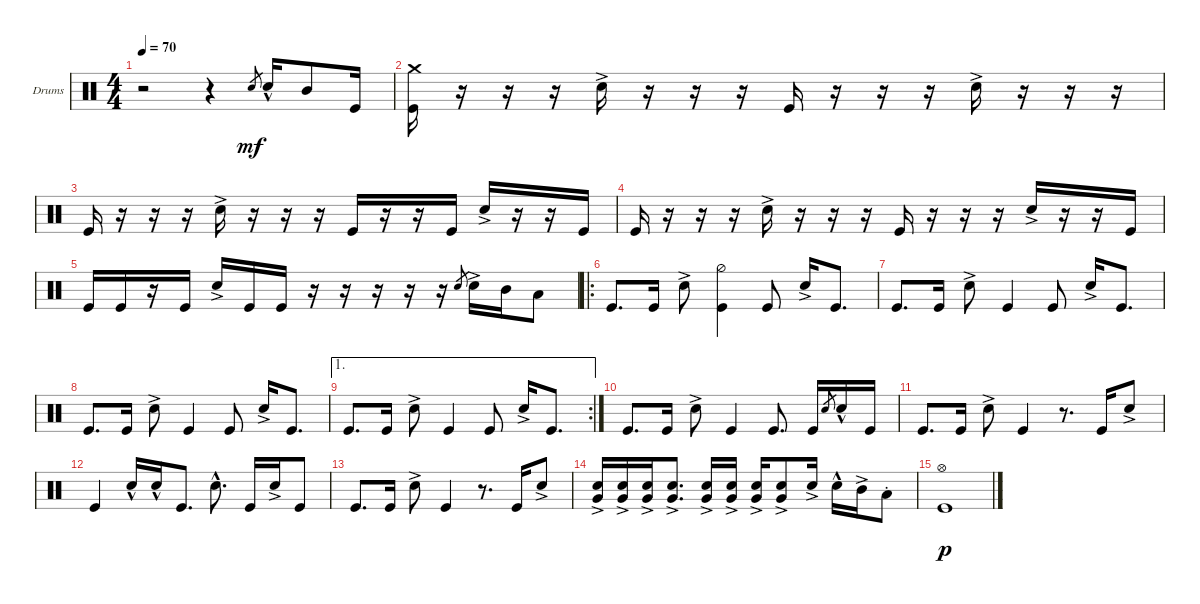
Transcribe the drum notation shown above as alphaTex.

\defaultSystemsLayout 4
\bracketExtendMode groupsimilarinstruments
\firstSystemTrackNameOrientation horizontal
\otherSystemsTrackNameOrientation horizontal
\track ("Drumkit" "Drums") {instrument percussion}
\staff {score}
\articulation defaults
\ts (4 4)
\tempo 70
\clef neutral
\ks c
r.2{dy mf} r.4 "Snare (hit) 2".8{gr} "Snare (hit) 2"{hac}.16 "Mid Tom (hit)".8 "Kick (hit)".16 |
("Kick (hit)" "Crash medium (hit)").16 r.16 r.16 r.16 "Snare (hit) 2"{ac}.16 r.16 r.16 r.16 "Kick (hit)".16 r.16 r.16 r.16 "Snare (hit) 2"{ac}.16 r.16 r.16 r.16 |
"Kick (hit)".16 r.16 r.16 r.16 "Snare (hit) 2"{ac}.16 r.16 r.16 r.16 "Kick (hit)".16 r.16 r.16 "Kick (hit)".16 "Snare (hit) 2"{ac}.16 r.16 r.16 "Kick (hit)".16 |
"Kick (hit)".16 r.16 r.16 r.16 "Snare (hit) 2"{ac}.16 r.16 r.16 r.16 "Kick (hit)".16 r.16 r.16 r.16 "Snare (hit) 2"{ac}.16 r.16 r.16 "Kick (hit)".16 |
"Kick (hit)".16 "Kick (hit)".16 r.16 "Kick (hit)".16 "Snare (hit) 2"{ac}.16 "Kick (hit)".16 "Kick (hit)".16 r.16 r.16 r.16 r.16 r.16 "Snare (hit) 2".8{gr} "Snare (hit) 2"{ac}.16 "Mid Tom (hit)".16 "Low Tom (hit)".8 |
\ro "Kick (hit)".8{d} "Kick (hit)".16 "Snare (hit) 2"{ac}.8
("Kick (hit)" "Hi-Hat (half)").4 "Kick (hit)".8 "Snare (hit) 2"{ac}.16 "Kick (hit)".8{d} |
"Kick (hit)".8{d} "Kick (hit)".16 "Snare (hit) 2"{ac}.8 "Kick (hit)".4 "Kick (hit)".8 "Snare (hit) 2"{ac}.16 "Kick (hit)".8{d} |
"Kick (hit)".8{d} "Kick (hit)".16 "Snare (hit) 2"{ac}.8 "Kick (hit)".4 "Kick (hit)".8 "Snare (hit) 2"{ac}.16 "Kick (hit)".8{d} |
\ae 1
\rc 2 "Kick (hit)".8{d} "Kick (hit)".16 "Snare (hit) 2"{ac}.8 "Kick (hit)".4 "Kick (hit)".8 "Snare (hit) 2"{ac}.16 "Kick (hit)".8{d}
|
"Kick (hit)".8{d} "Kick (hit)".16 "Snare (hit) 2"{ac}.8 "Kick (hit)".4 "Kick (hit)".8{d} "Kick (hit)".16 "Snare (hit) 2".8{gr} "Snare (hit) 2"{hac}.16 "Kick (hit)".16 |
"Kick (hit)".8{d} "Kick (hit)".16 "Snare (hit) 2"{ac}.8 "Kick (hit)".4 r.8{d} "Kick (hit)".16 "Snare (hit) 2"{ac}.8 |
"Kick (hit)".4 "Snare (hit) 2"{hac}.16 "Snare (hit) 2"{hac}.16 "Kick (hit)".8{d} "Snare (hit) 2"{hac}.8{d} "Kick (hit)".16 "Snare (hit) 2"{ac}.16 "Kick (hit)".8 |
"Kick (hit)".8{d} "Kick (hit)".16 "Snare (hit) 2"{ac}.8 "Kick (hit)".4 r.8{d} "Kick (hit)".16 "Snare (hit) 2"{ac}.8 |
("Snare (hit) 2"{ac} "Very Low Tom (hit)").16 ("Snare (hit) 2"{ac} "Very Low Tom (hit)").16 ("Snare (hit) 2"{ac} "Very Low Tom (hit)").16 ("Snare (hit) 2"{ac} "Very Low Tom (hit)").8{d} ("Snare (hit) 2"{ac} "Very Low Tom (hit)").16 ("Snare (hit) 2"{ac} "Very Low Tom (hit)").16 ("Snare (hit) 2"{ac} "Very Low Tom (hit)").16 ("Snare (hit) 2"{ac} "Very Low Tom (hit)").8 "Snare (hit) 2"{ac}.16 "Snare (hit) 2"{hac}.16 "Mid Tom (hit)"{ac}.16 "Low Tom (hit)"{st}.8 |
("Kick (hit)" "Hi-Hat (open)").1{dy p}
